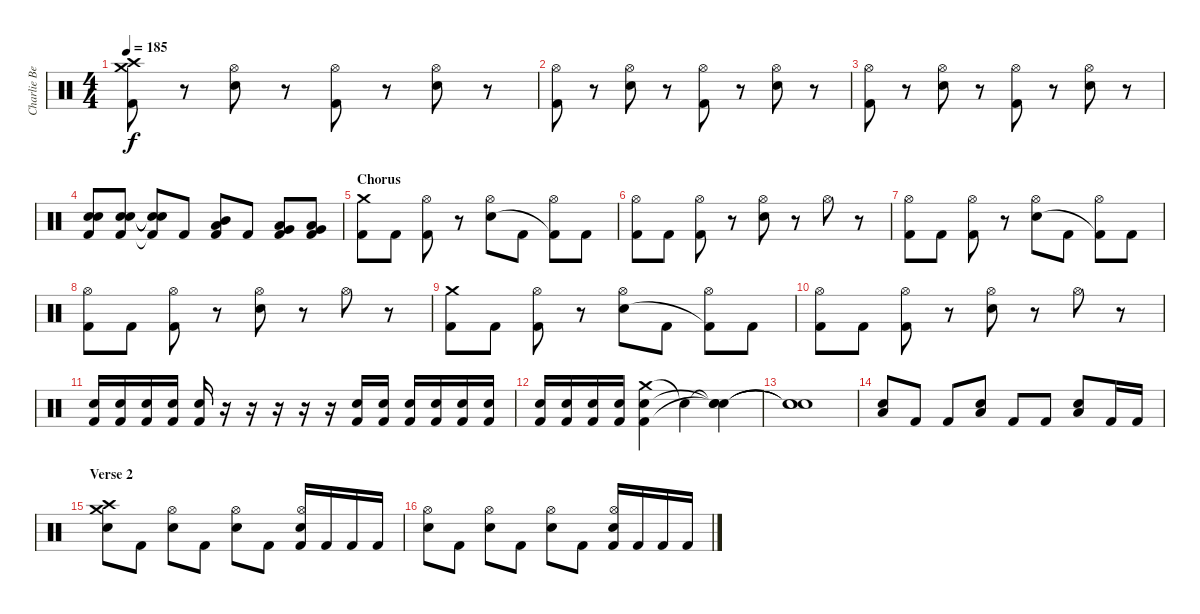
\track ("Charlie Benante" "Charlie Be") {instrument percussion}
\staff {score}
\articulation defaults
\ts (4 4)
\tempo 185
\clef neutral
\ks c
("Crash high (hit)" "Crash medium (hit)" "Kick (hit) 2").8{dy f} r.8 ("Hi-Hat (open)" "Snare (hit) 2").8 r.8 ("Hi-Hat (open)" "Kick (hit) 2").8 r.8 ("Hi-Hat (open)" "Snare (hit) 2").8 r.8 |
("Hi-Hat (open)" "Kick (hit) 2").8 r.8 ("Hi-Hat (open)" "Snare (hit) 2").8 r.8 ("Hi-Hat (open)" "Kick (hit) 2").8 r.8 ("Hi-Hat (open)" "Snare (hit) 2").8 r.8 |
("Hi-Hat (open)" "Kick (hit) 2").8 r.8 ("Hi-Hat (open)" "Snare (hit) 2").8 r.8 ("Hi-Hat (open)" "Kick (hit) 2").8 r.8 ("Hi-Hat (open)" "Snare (hit) 2").8 r.8 |
("Snare (hit) 2" "Snare (hit) 2" "Kick (hit) 2").8 ("Snare (hit) 2" "Snare (hit) 2" "Kick (hit) 2").8 ("Snare (hit)"{t} "Snare (hit)"{t} "Kick (hit) 2"{t}).8 "Kick (hit) 2".8 ("Low Tom (hit)" "Mid Tom (hit)" "Kick (hit) 2").8 "Kick (hit) 2".8 ("Low Floor Tom (hit)" "Very Low Tom (hit)" "Kick (hit) 2").8 ("Low Floor Tom (hit)" "Very Low Tom (hit)" "Kick (hit) 2").8 |
\section ("" "Chorus")
("Crash medium (hit)" "Kick (hit) 2").8 "Kick (hit) 2".8 ("Hi-Hat (open)" "Kick (hit) 2").8 r.8 ("Hi-Hat (open)" "Snare (hit) 2").8 "Kick (hit) 2".8 ("Hi-Hat (open)" "Kick (hit) 2"{t}).8 "Kick (hit) 2".8 |
("Hi-Hat (open)" "Kick (hit) 2").8 "Kick (hit) 2".8 ("Hi-Hat (open)" "Kick (hit) 2").8 r.8 ("Hi-Hat (open)" "Snare (hit) 2").8 r.8 "Hi-Hat (open)".8 r.8 |
("Hi-Hat (open)" "Kick (hit) 2").8 "Kick (hit) 2".8 ("Hi-Hat (open)" "Kick (hit) 2").8 r.8 ("Hi-Hat (open)" "Snare (hit) 2").8 "Kick (hit) 2".8 ("Hi-Hat (open)" "Kick (hit) 2"{t}).8 "Kick (hit) 2".8 |
("Hi-Hat (open)" "Kick (hit) 2").8 "Kick (hit) 2".8 ("Hi-Hat (open)" "Kick (hit) 2").8 r.8 ("Hi-Hat (open)" "Snare (hit) 2").8 r.8 "Hi-Hat (open)".8 r.8 |
("Crash medium (hit)" "Kick (hit) 2").8 "Kick (hit) 2".8 ("Hi-Hat (open)" "Kick (hit) 2").8 r.8 ("Hi-Hat (open)" "Snare (hit) 2").8 "Kick (hit) 2".8 ("Hi-Hat (open)" "Kick (hit) 2"{t}).8 "Kick (hit) 2".8 |
("Hi-Hat (open)" "Kick (hit) 2").8 "Kick (hit) 2".8 ("Hi-Hat (open)" "Kick (hit) 2").8 r.8 ("Hi-Hat (open)" "Snare (hit) 2").8 r.8 "Hi-Hat (open)".8 r.8 |
("Snare (hit) 2" "Kick (hit) 2").16 ("Snare (hit) 2" "Kick (hit) 2").16 ("Snare (hit) 2" "Kick (hit) 2").16 ("Snare (hit) 2" "Kick (hit) 2").16 ("Snare (hit) 2" "Kick (hit) 2").16 r.16 r.16 r.16 r.16 r.16 ("Snare (hit) 2" "Kick (hit) 2").16 ("Snare (hit) 2" "Kick (hit) 2").16 ("Snare (hit) 2" "Kick (hit) 2").16 ("Snare (hit) 2" "Kick (hit) 2").16 ("Snare (hit) 2" "Kick (hit) 2").16 ("Snare (hit) 2" "Kick (hit) 2").16 |
("Snare (hit) 2" "Kick (hit) 2").16 ("Snare (hit) 2" "Kick (hit) 2").16 ("Snare (hit) 2" "Kick (hit) 2").16 ("Snare (hit) 2" "Kick (hit) 2").16 ("Crash medium (hit)" "Snare (hit) 2" "Kick (hit) 2").4 "Snare (hit)"{t}.4 ("Snare (hit)"{t} "Snare (hit)"{t} "Snare (hit)"{t}).4 |
("Snare (hit)"{t} "Snare (hit)"{t} "Snare (hit)"{t}).1 |
("Low Floor Tom (hit)" "Snare (hit) 2").8 "Kick (hit) 2".8 "Kick (hit) 2".8 ("Low Floor Tom (hit)" "Snare (hit) 2").8 "Kick (hit) 2".8 "Kick (hit) 2".8 ("Low Floor Tom (hit)" "Snare (hit) 2").8 "Kick (hit) 2".16 "Kick (hit) 2".16 |
\section ("" "Verse 2")
("Crash high (hit)" "Crash medium (hit)" "Snare (hit) 2").8 "Kick (hit) 2".8 ("Hi-Hat (open)" "Snare (hit) 2").8 "Kick (hit) 2".8 ("Hi-Hat (open)" "Snare (hit) 2").8 "Kick (hit) 2".8 ("Hi-Hat (open)" "Snare (hit) 2" "Kick (hit) 2").16 "Kick (hit) 2".16 "Kick (hit) 2".16 "Kick (hit) 2".16 |
("Hi-Hat (open)" "Snare (hit) 2").8 "Kick (hit) 2".8 ("Hi-Hat (open)" "Snare (hit) 2").8 "Kick (hit) 2".8 ("Hi-Hat (open)" "Snare (hit) 2").8 "Kick (hit) 2".8 ("Hi-Hat (open)" "Snare (hit) 2" "Kick (hit) 2").16 "Kick (hit) 2".16 "Kick (hit) 2".16 "Kick (hit) 2".16
